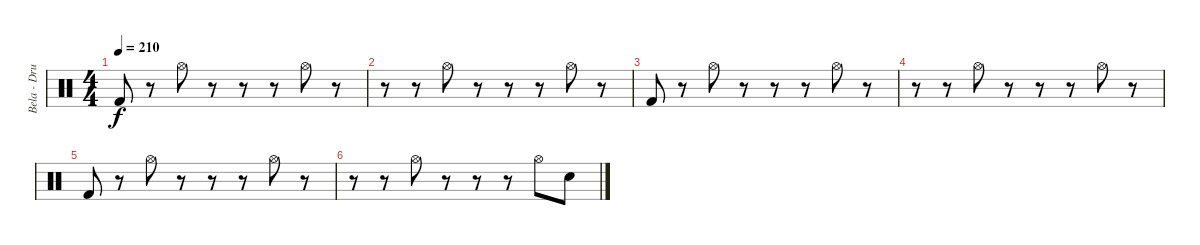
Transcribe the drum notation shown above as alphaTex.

\track ("Bela - Drums" "Bela - Dru") {instrument percussion}
\staff {score}
\articulation defaults
\ts (4 4)
\tempo 210
\clef neutral
\ks c "Kick (hit) 2".8{dy f}
r.8 "Hi-Hat (open)".8 r.8 r.8 r.8 "Hi-Hat (open)".8 r.8 |
r.8 r.8 "Hi-Hat (open)".8 r.8 r.8 r.8 "Hi-Hat (open)".8 r.8 |
"Kick (hit) 2".8 r.8 "Hi-Hat (open)".8 r.8 r.8 r.8 "Hi-Hat (open)".8 r.8 |
r.8 r.8 "Hi-Hat (open)".8 r.8 r.8 r.8 "Hi-Hat (open)".8 r.8 |
"Kick (hit) 2".8 r.8 "Hi-Hat (open)".8 r.8 r.8 r.8 "Hi-Hat (open)".8 r.8 |
r.8 r.8 "Hi-Hat (open)".8 r.8 r.8 r.8 "Hi-Hat (open)".8 "Snare (hit)".8
